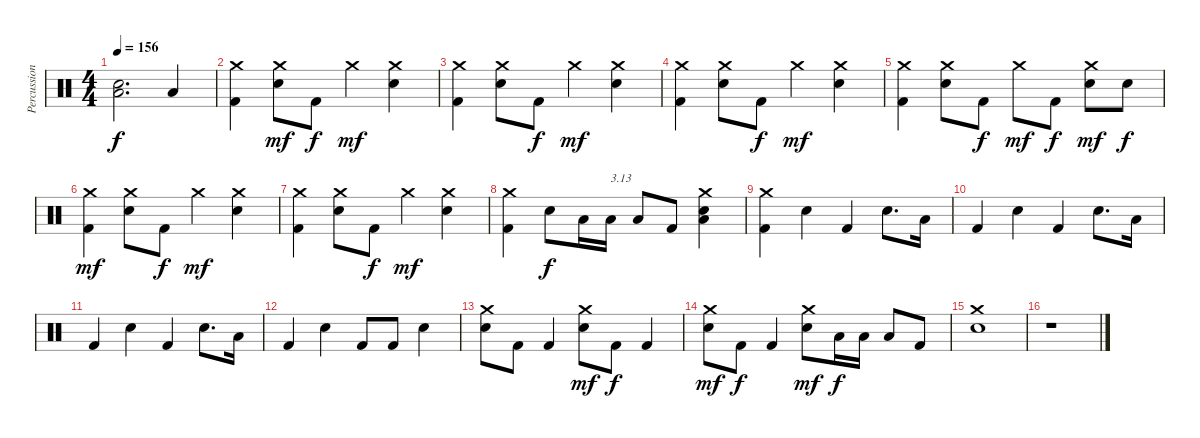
\track ("Percussions" "Percussion") {instrument percussion}
\staff {score}
\articulation defaults
\ts (4 4)
\tempo 156
\clef neutral
\ks c
("Electric Snare (hit)" "Low Floor Tom (hit)").2{d dy f} "Low Floor Tom (hit)".4 |
("Kick (hit) 2" "Crash medium (hit)").4 ("Electric Snare (hit)" "Crash medium (hit)").8{dy mf} "Kick (hit) 2".8{dy f} "Crash medium (hit)".4{dy mf} ("Electric Snare (hit)" "Crash medium (hit)").4 |
("Kick (hit) 2" "Crash medium (hit)").4 ("Electric Snare (hit)" "Crash medium (hit)").8 "Kick (hit) 2".8{dy f} "Crash medium (hit)".4{dy mf} ("Electric Snare (hit)" "Crash medium (hit)").4 |
("Kick (hit) 2" "Crash medium (hit)").4 ("Electric Snare (hit)" "Crash medium (hit)").8 "Kick (hit) 2".8{dy f} "Crash medium (hit)".4{dy mf} ("Electric Snare (hit)" "Crash medium (hit)").4 |
("Kick (hit) 2" "Crash medium (hit)").4 ("Electric Snare (hit)" "Crash medium (hit)").8 "Kick (hit) 2".8{dy f} "Crash medium (hit)".8{dy mf} "Kick (hit) 2".8{dy f} ("Electric Snare (hit)" "Crash medium (hit)").8{dy mf} "Electric Snare (hit)".8{dy f} |
("Kick (hit) 2" "Crash medium (hit)").4{dy mf} ("Electric Snare (hit)" "Crash medium (hit)").8 "Kick (hit) 2".8{dy f} "Crash medium (hit)".4{dy mf} ("Electric Snare (hit)" "Crash medium (hit)").4 |
("Kick (hit) 2" "Crash medium (hit)").4 ("Electric Snare (hit)" "Crash medium (hit)").8 "Kick (hit) 2".8{dy f} "Crash medium (hit)".4{dy mf} ("Electric Snare (hit)" "Crash medium (hit)").4 |
("Kick (hit) 2" "Crash medium (hit)").4 "Electric Snare (hit)".8{dy f} "Low Floor Tom (hit)".16 "Low Floor Tom (hit)".16{txt "3.13"} "Low Floor Tom (hit)".8 "Kick (hit) 2".8 ("Electric Snare (hit)" "Low Floor Tom (hit)" "Crash medium (hit)").4 |
("Kick (hit) 2" "Crash medium (hit)").4 "Electric Snare (hit)".4 "Kick (hit) 2".4 "Electric Snare (hit)".8{d} "Low Floor Tom (hit)".16 |
"Kick (hit) 2".4 "Electric Snare (hit)".4 "Kick (hit) 2".4 "Electric Snare (hit)".8{d} "Low Floor Tom (hit)".16 |
"Kick (hit) 2".4 "Electric Snare (hit)".4 "Kick (hit) 2".4 "Electric Snare (hit)".8{d} "Low Floor Tom (hit)".16 |
"Kick (hit) 2".4 "Electric Snare (hit)".4 "Kick (hit) 2".8 "Kick (hit) 2".8 "Electric Snare (hit)".4 |
("Electric Snare (hit)" "Crash medium (hit)").8 "Kick (hit) 2".8 "Kick (hit) 2".4 ("Electric Snare (hit)" "Crash medium (hit)").8{dy mf} "Kick (hit) 2".8{dy f} "Kick (hit) 2".4 |
("Electric Snare (hit)" "Crash medium (hit)").8{dy mf} "Kick (hit) 2".8{dy f} "Kick (hit) 2".4 ("Electric Snare (hit)" "Crash medium (hit)").8{dy mf} "Low Floor Tom (hit)".16{dy f} "Low Floor Tom (hit)".16 "Low Floor Tom (hit)".8 "Kick (hit) 2".8 |
("Electric Snare (hit)" "Crash medium (hit)").1 |
r.1
